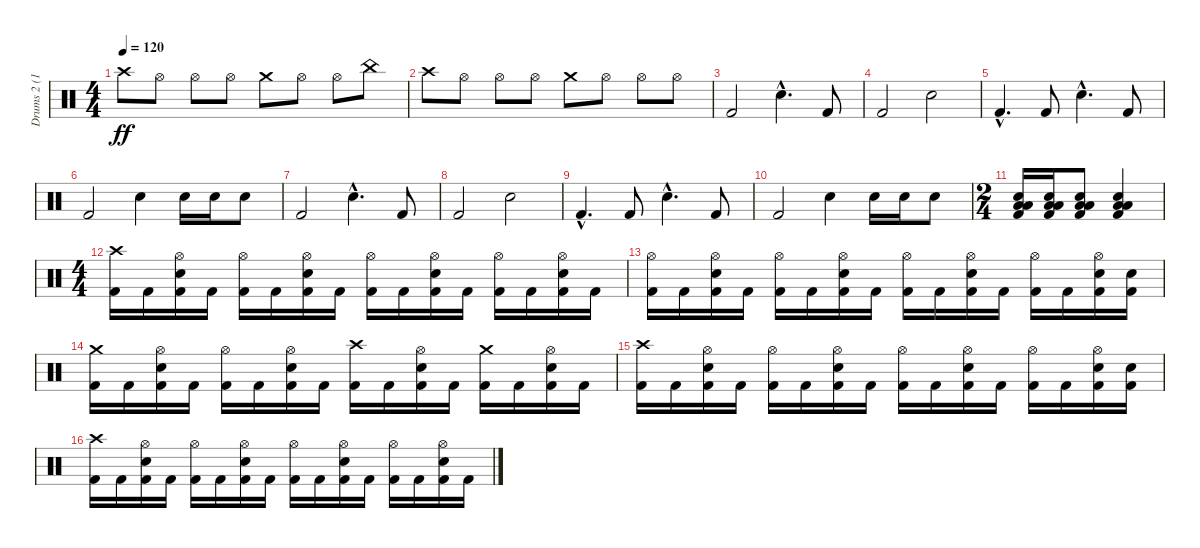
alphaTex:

\track ("Drums 2 (16)" "Drums 2 (1") {instrument percussion}
\staff {score}
\articulation defaults
\ts (4 4)
\tempo 120
\clef neutral
\ks c "Crash high (hit)".8{dy ff} "Hi-Hat (open)".8 "Hi-Hat (open)".8 "Hi-Hat (open)".8 "Crash medium (hit)".8 "Hi-Hat (open)".8 "Hi-Hat (open)".8 "China (hit)".8
|
"Crash high (hit)".8 "Hi-Hat (open)".8 "Hi-Hat (open)".8 "Hi-Hat (open)".8 "Crash medium (hit)".8 "Hi-Hat (open)".8 "Hi-Hat (open)".8 "Hi-Hat (open)".8 |
"Kick (hit) 2".2 "Snare (hit) 2"{hac}.4{d} "Kick (hit) 2".8 |
"Kick (hit) 2".2 "Snare (hit) 2".2 |
"Kick (hit) 2"{hac}.4{d} "Kick (hit) 2".8 "Snare (hit) 2"{hac}.4{d} "Kick (hit) 2".8 |
"Kick (hit) 2".2 "Snare (hit) 2".4 "Snare (hit) 2".16 "Snare (hit) 2".16 "Snare (hit) 2".8 |
"Kick (hit) 2".2 "Snare (hit) 2"{hac}.4{d} "Kick (hit) 2".8 |
"Kick (hit) 2".2 "Snare (hit) 2".2 |
"Kick (hit) 2"{hac}.4{d} "Kick (hit) 2".8 "Snare (hit) 2"{hac}.4{d} "Kick (hit) 2".8 |
"Kick (hit) 2".2 "Snare (hit) 2".4 "Snare (hit) 2".16 "Snare (hit) 2".16 "Snare (hit) 2".8 |
\ts (2 4)
("Kick (hit) 2" "Snare (hit) 2" "Low Floor Tom (hit)" "Low Tom (hit)").16 ("Kick (hit) 2" "Snare (hit) 2" "Low Floor Tom (hit)" "Low Tom (hit)").16 ("Kick (hit) 2" "Snare (hit) 2" "Low Floor Tom (hit)" "Low Tom (hit)").8 ("Kick (hit) 2" "Snare (hit) 2" "Low Floor Tom (hit)" "Low Tom (hit)").4 |
\ts (4 4)
("Kick (hit) 2" "Crash high (hit)").16 "Kick (hit) 2".16 ("Kick (hit) 2" "Snare (hit) 2" "Hi-Hat (open)").16 "Kick (hit) 2".16 ("Kick (hit) 2" "Hi-Hat (open)").16 "Kick (hit) 2".16 ("Kick (hit) 2" "Snare (hit) 2" "Hi-Hat (open)").16 "Kick (hit) 2".16 ("Kick (hit) 2" "Hi-Hat (open)").16 "Kick (hit) 2".16 ("Kick (hit) 2" "Snare (hit) 2" "Hi-Hat (open)").16 "Kick (hit) 2".16 ("Kick (hit) 2" "Hi-Hat (open)").16 "Kick (hit) 2".16 ("Kick (hit) 2" "Snare (hit) 2" "Hi-Hat (open)").16 "Kick (hit) 2".16 |
("Kick (hit) 2" "Hi-Hat (open)").16 "Kick (hit) 2".16 ("Kick (hit) 2" "Snare (hit) 2" "Hi-Hat (open)").16 "Kick (hit) 2".16 ("Kick (hit) 2" "Hi-Hat (open)").16 "Kick (hit) 2".16 ("Kick (hit) 2" "Snare (hit) 2" "Hi-Hat (open)").16 "Kick (hit) 2".16 ("Kick (hit) 2" "Hi-Hat (open)").16 "Kick (hit) 2".16 ("Kick (hit) 2" "Snare (hit) 2" "Hi-Hat (open)").16 "Kick (hit) 2".16 ("Kick (hit) 2" "Hi-Hat (open)").16 "Kick (hit) 2".16 ("Kick (hit) 2" "Snare (hit) 2" "Hi-Hat (open)").16 ("Kick (hit) 2" "Snare (hit) 2").16 |
("Kick (hit) 2" "Crash medium (hit)").16 "Kick (hit) 2".16 ("Kick (hit) 2" "Snare (hit) 2" "Hi-Hat (open)").16 "Kick (hit) 2".16 ("Kick (hit) 2" "Hi-Hat (open)").16 "Kick (hit) 2".16 ("Kick (hit) 2" "Snare (hit) 2" "Hi-Hat (open)").16 "Kick (hit) 2".16 ("Kick (hit) 2" "Crash high (hit)").16 "Kick (hit) 2".16 ("Kick (hit) 2" "Snare (hit) 2" "Hi-Hat (open)").16 "Kick (hit) 2".16 ("Kick (hit) 2" "Crash medium (hit)").16 "Kick (hit) 2".16 ("Kick (hit) 2" "Snare (hit) 2" "Hi-Hat (open)").16 "Kick (hit) 2".16 |
("Kick (hit) 2" "Crash high (hit)").16 "Kick (hit) 2".16 ("Kick (hit) 2" "Snare (hit) 2" "Hi-Hat (open)").16 "Kick (hit) 2".16 ("Kick (hit) 2" "Hi-Hat (open)").16 "Kick (hit) 2".16 ("Kick (hit) 2" "Snare (hit) 2" "Hi-Hat (open)").16 "Kick (hit) 2".16 ("Kick (hit) 2" "Hi-Hat (open)").16 "Kick (hit) 2".16 ("Kick (hit) 2" "Snare (hit) 2" "Hi-Hat (open)").16 "Kick (hit) 2".16 ("Kick (hit) 2" "Hi-Hat (open)").16 "Kick (hit) 2".16 ("Kick (hit) 2" "Snare (hit) 2" "Hi-Hat (open)").16 ("Kick (hit) 2" "Snare (hit) 2").16 |
("Kick (hit) 2" "Crash high (hit)").16 "Kick (hit) 2".16 ("Kick (hit) 2" "Snare (hit) 2" "Hi-Hat (open)").16 "Kick (hit) 2".16 ("Kick (hit) 2" "Hi-Hat (open)").16 "Kick (hit) 2".16 ("Kick (hit) 2" "Snare (hit) 2" "Hi-Hat (open)").16 "Kick (hit) 2".16 ("Kick (hit) 2" "Hi-Hat (open)").16 "Kick (hit) 2".16 ("Kick (hit) 2" "Snare (hit) 2" "Hi-Hat (open)").16 "Kick (hit) 2".16 ("Kick (hit) 2" "Hi-Hat (open)").16 "Kick (hit) 2".16 ("Kick (hit) 2" "Snare (hit) 2" "Hi-Hat (open)").16 "Kick (hit) 2".16
